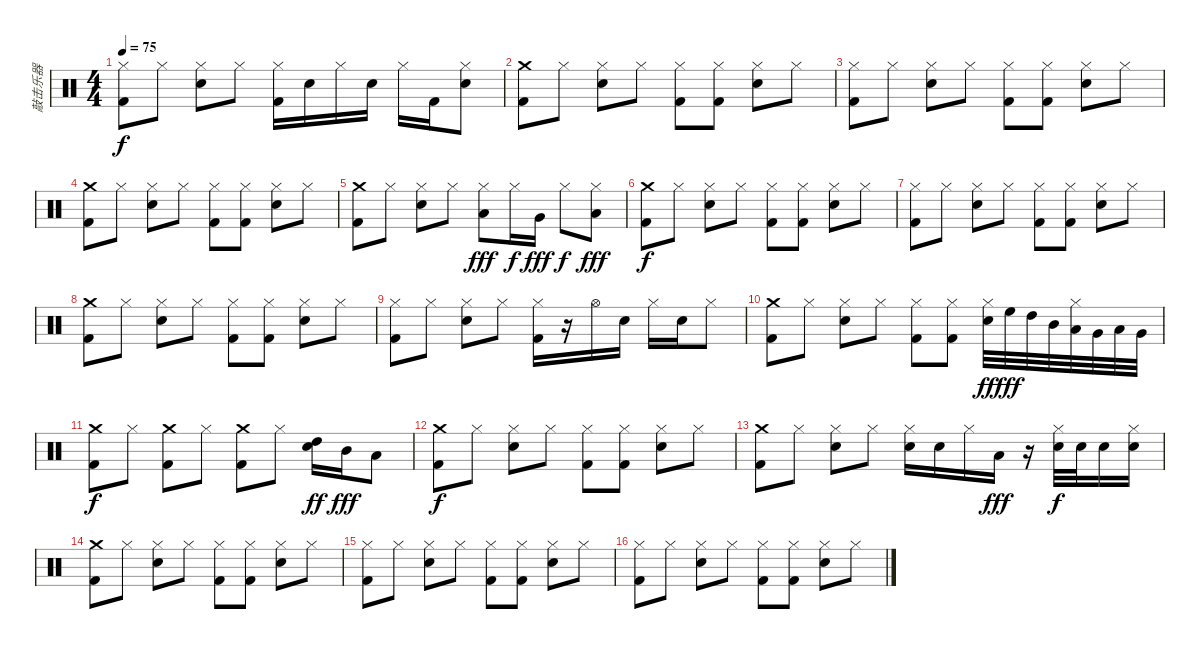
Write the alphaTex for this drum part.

\track ("敲击乐器" "敲击乐器") {instrument percussion}
\staff {score}
\articulation defaults
\ts (4 4)
\tempo 75
\clef neutral
\ks c
("Hi-Hat (closed)" "Kick (hit) 2").8{dy f} "Hi-Hat (closed)".8 ("Hi-Hat (closed)" "Electric Snare (hit)").8 "Hi-Hat (closed)".8 ("Hi-Hat (closed)" "Kick (hit) 2").16 "Electric Snare (hit)".16 "Hi-Hat (closed)".16 "Electric Snare (hit)".16 "Hi-Hat (closed)".16 "Kick (hit) 2".16 ("Hi-Hat (closed)" "Electric Snare (hit)").8 |
("Crash medium (hit)" "Kick (hit) 2").8 "Hi-Hat (closed)".8 ("Hi-Hat (closed)" "Electric Snare (hit)").8 "Hi-Hat (closed)".8 ("Hi-Hat (closed)" "Kick (hit) 2").8 ("Hi-Hat (closed)" "Kick (hit) 2").8 ("Hi-Hat (closed)" "Electric Snare (hit)").8 "Hi-Hat (closed)".8 |
("Hi-Hat (closed)" "Kick (hit) 2").8 "Hi-Hat (closed)".8 ("Hi-Hat (closed)" "Electric Snare (hit)").8 "Hi-Hat (closed)".8 ("Hi-Hat (closed)" "Kick (hit) 2").8 ("Hi-Hat (closed)" "Kick (hit) 2").8 ("Hi-Hat (closed)" "Electric Snare (hit)").8 "Hi-Hat (closed)".8 |
("Crash medium (hit)" "Kick (hit) 2").8 "Hi-Hat (closed)".8 ("Hi-Hat (closed)" "Electric Snare (hit)").8 "Hi-Hat (closed)".8 ("Hi-Hat (closed)" "Kick (hit) 2").8 ("Hi-Hat (closed)" "Kick (hit) 2").8 ("Hi-Hat (closed)" "Electric Snare (hit)").8 "Hi-Hat (closed)".8 |
("Crash medium (hit)" "Kick (hit) 2").8 "Hi-Hat (closed)".8 ("Hi-Hat (closed)" "Electric Snare (hit)").8 "Hi-Hat (closed)".8 ("Hi-Hat (closed)" "Low Tom (hit)").8{dy fff} "Hi-Hat (closed)".16{dy f} "Very Low Tom (hit)".16{dy fff} "Hi-Hat (closed)".8{dy f} ("Hi-Hat (closed)" "Low Floor Tom (hit)").8{dy fff} |
("Crash medium (hit)" "Kick (hit) 2").8{dy f} "Hi-Hat (closed)".8 ("Hi-Hat (closed)" "Electric Snare (hit)").8 "Hi-Hat (closed)".8 ("Hi-Hat (closed)" "Kick (hit) 2").8 ("Hi-Hat (closed)" "Kick (hit) 2").8 ("Hi-Hat (closed)" "Electric Snare (hit)").8 "Hi-Hat (closed)".8 |
("Hi-Hat (closed)" "Kick (hit) 2").8 "Hi-Hat (closed)".8 ("Hi-Hat (closed)" "Electric Snare (hit)").8 "Hi-Hat (closed)".8 ("Hi-Hat (closed)" "Kick (hit) 2").8 ("Hi-Hat (closed)" "Kick (hit) 2").8 ("Hi-Hat (closed)" "Electric Snare (hit)").8 "Hi-Hat (closed)".8 |
("Crash medium (hit)" "Kick (hit) 2").8 "Hi-Hat (closed)".8 ("Hi-Hat (closed)" "Electric Snare (hit)").8 "Hi-Hat (closed)".8 ("Hi-Hat (closed)" "Kick (hit) 2").8 ("Hi-Hat (closed)" "Kick (hit) 2").8 ("Hi-Hat (closed)" "Electric Snare (hit)").8 "Hi-Hat (closed)".8 |
("Hi-Hat (closed)" "Kick (hit) 2").8 "Hi-Hat (closed)".8 ("Hi-Hat (closed)" "Electric Snare (hit)").8 "Hi-Hat (closed)".8 ("Hi-Hat (closed)" "Kick (hit) 2").16 r.16 "Hi-Hat (open)".16 "Electric Snare (hit)".16 "Hi-Hat (closed)".16 "Electric Snare (hit)".16 "Hi-Hat (closed)".8 |
("Crash medium (hit)" "Kick (hit) 2").8 "Hi-Hat (closed)".8 ("Hi-Hat (closed)" "Electric Snare (hit)").8 "Hi-Hat (closed)".8 ("Hi-Hat (closed)" "Kick (hit) 2").8 ("Hi-Hat (closed)" "Kick (hit) 2").8 ("Hi-Hat (closed)" "Electric Snare (hit)").32{dy ff} "High Floor Tom (hit)".32{dy fff} "High Tom (hit)".32 "Mid Tom (hit)".32 ("Hi-Hat (closed)" "Low Tom (hit)").32 "Very Low Tom (hit)".32 "Low Floor Tom (hit)".32 "Very Low Tom (hit)".32 |
("Crash medium (hit)" "Kick (hit) 2").8{dy f} "Hi-Hat (closed)".8 ("Crash medium (hit)" "Kick (hit) 2").8 "Hi-Hat (closed)".8 ("Crash medium (hit)" "Kick (hit) 2").8 "Hi-Hat (closed)".8 ("High Tom (hit)" "Electric Snare (hit)").16{dy ff} "Mid Tom (hit)".16{dy fff} "Low Tom (hit)".8 |
("Crash medium (hit)" "Kick (hit) 2").8{dy f} "Hi-Hat (closed)".8 ("Hi-Hat (closed)" "Electric Snare (hit)").8 "Hi-Hat (closed)".8 ("Hi-Hat (closed)" "Kick (hit) 2").8 ("Hi-Hat (closed)" "Kick (hit) 2").8 ("Hi-Hat (closed)" "Electric Snare (hit)").8 "Hi-Hat (closed)".8 |
("Crash medium (hit)" "Kick (hit) 2").8 "Hi-Hat (closed)".8 ("Hi-Hat (closed)" "Electric Snare (hit)").8 "Hi-Hat (closed)".8 ("Hi-Hat (closed)" "Electric Snare (hit)").16 "Electric Snare (hit)".16 "Hi-Hat (closed)".16 "Low Tom (hit)".16{dy fff} r.16 ("Hi-Hat (closed)" "Electric Snare (hit)").32{dy f} "Electric Snare (hit)".32 "Electric Snare (hit)".16 ("Hi-Hat (closed)" "Electric Snare (hit)").16 |
("Crash medium (hit)" "Kick (hit) 2").8 "Hi-Hat (closed)".8 ("Hi-Hat (closed)" "Electric Snare (hit)").8 "Hi-Hat (closed)".8 ("Hi-Hat (closed)" "Kick (hit) 2").8 ("Hi-Hat (closed)" "Kick (hit) 2").8 ("Hi-Hat (closed)" "Electric Snare (hit)").8 "Hi-Hat (closed)".8 |
("Hi-Hat (closed)" "Kick (hit) 2").8 "Hi-Hat (closed)".8 ("Hi-Hat (closed)" "Electric Snare (hit)").8 "Hi-Hat (closed)".8 ("Hi-Hat (closed)" "Kick (hit) 2").8 ("Hi-Hat (closed)" "Kick (hit) 2").8 ("Hi-Hat (closed)" "Electric Snare (hit)").8 "Hi-Hat (closed)".8 |
("Hi-Hat (closed)" "Kick (hit) 2").8 "Hi-Hat (closed)".8 ("Hi-Hat (closed)" "Electric Snare (hit)").8 "Hi-Hat (closed)".8 ("Hi-Hat (closed)" "Kick (hit) 2").8 ("Hi-Hat (closed)" "Kick (hit) 2").8 ("Hi-Hat (closed)" "Electric Snare (hit)").8 "Hi-Hat (closed)".8
